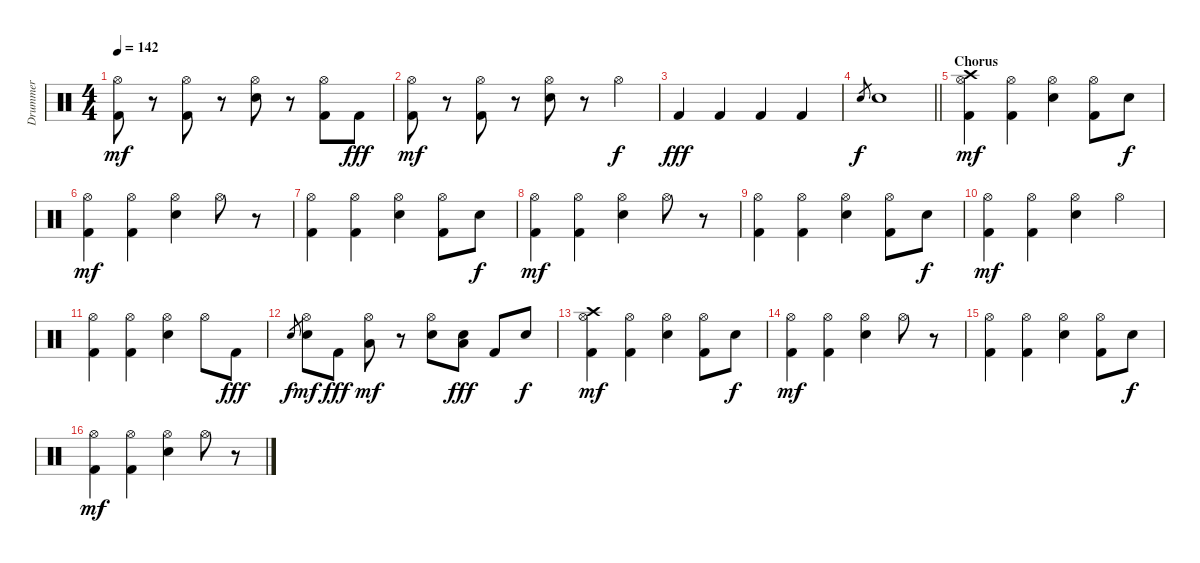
\track ("Drummer" "Drummer") {instrument percussion}
\staff {score}
\articulation defaults
\ts (4 4)
\tempo 142
\clef neutral
\ks c
("Kick (hit) 2" "Hi-Hat (open)").8{dy mf} r.8 ("Kick (hit) 2" "Hi-Hat (open)").8 r.8 ("Electric Snare (hit)" "Hi-Hat (open)").8 r.8 ("Kick (hit) 2" "Hi-Hat (open)").8 "Kick (hit) 2".8{dy fff} |
("Kick (hit) 2" "Hi-Hat (open)").8{dy mf} r.8 ("Kick (hit) 2" "Hi-Hat (open)").8 r.8 ("Electric Snare (hit)" "Hi-Hat (open)").8 r.8 "Hi-Hat (open)".4{dy f} |
"Kick (hit) 2".4{dy fff} "Kick (hit) 2".4 "Kick (hit) 2".4 "Kick (hit) 2".4 |
\barLineRight lightlight "Electric Snare (hit)".8{gr dy f} "Electric Snare (hit)".1
|
\section ("" "Chorus")
("Kick (hit) 2" "Hi-Hat (open)" "Crash high (hit)").4{dy mf} ("Kick (hit) 2" "Hi-Hat (open)").4 ("Electric Snare (hit)" "Hi-Hat (open)").4 ("Kick (hit) 2" "Hi-Hat (open)").8 "Electric Snare (hit)".8{dy f} |
("Kick (hit) 2" "Hi-Hat (open)").4{dy mf} ("Kick (hit) 2" "Hi-Hat (open)").4 ("Electric Snare (hit)" "Hi-Hat (open)").4 "Hi-Hat (open)".8 r.8 |
("Kick (hit) 2" "Hi-Hat (open)").4 ("Kick (hit) 2" "Hi-Hat (open)").4 ("Electric Snare (hit)" "Hi-Hat (open)").4 ("Kick (hit) 2" "Hi-Hat (open)").8 "Electric Snare (hit)".8{dy f} |
("Kick (hit) 2" "Hi-Hat (open)").4{dy mf} ("Kick (hit) 2" "Hi-Hat (open)").4 ("Electric Snare (hit)" "Hi-Hat (open)").4 "Hi-Hat (open)".8 r.8 |
("Kick (hit) 2" "Hi-Hat (open)").4 ("Kick (hit) 2" "Hi-Hat (open)").4 ("Electric Snare (hit)" "Hi-Hat (open)").4 ("Kick (hit) 2" "Hi-Hat (open)").8 "Electric Snare (hit)".8{dy f} |
("Kick (hit) 2" "Hi-Hat (open)").4{dy mf} ("Kick (hit) 2" "Hi-Hat (open)").4 ("Electric Snare (hit)" "Hi-Hat (open)").4 "Hi-Hat (open)".4 |
("Kick (hit) 2" "Hi-Hat (open)").4 ("Kick (hit) 2" "Hi-Hat (open)").4 ("Electric Snare (hit)" "Hi-Hat (open)").4 "Hi-Hat (open)".8 "Kick (hit) 2".8{dy fff} |
"Electric Snare (hit)".8{gr dy f} ("Electric Snare (hit)" "Hi-Hat (open)").8{dy mf} "Kick (hit) 2".8{dy fff} ("Low Tom (hit)" "Hi-Hat (open)").8{dy mf} r.8 ("Electric Snare (hit)" "Hi-Hat (open)").8 ("Electric Snare (hit)" "Low Tom (hit)").8{dy fff} "Kick (hit) 2".8 "Electric Snare (hit)".8{dy f} |
("Kick (hit) 2" "Hi-Hat (open)" "Crash high (hit)").4{dy mf} ("Kick (hit) 2" "Hi-Hat (open)").4 ("Electric Snare (hit)" "Hi-Hat (open)").4 ("Kick (hit) 2" "Hi-Hat (open)").8 "Electric Snare (hit)".8{dy f} |
("Kick (hit) 2" "Hi-Hat (open)").4{dy mf} ("Kick (hit) 2" "Hi-Hat (open)").4 ("Electric Snare (hit)" "Hi-Hat (open)").4 "Hi-Hat (open)".8 r.8 |
("Kick (hit) 2" "Hi-Hat (open)").4 ("Kick (hit) 2" "Hi-Hat (open)").4 ("Electric Snare (hit)" "Hi-Hat (open)").4 ("Kick (hit) 2" "Hi-Hat (open)").8 "Electric Snare (hit)".8{dy f} |
("Kick (hit) 2" "Hi-Hat (open)").4{dy mf} ("Kick (hit) 2" "Hi-Hat (open)").4 ("Electric Snare (hit)" "Hi-Hat (open)").4 "Hi-Hat (open)".8 r.8
